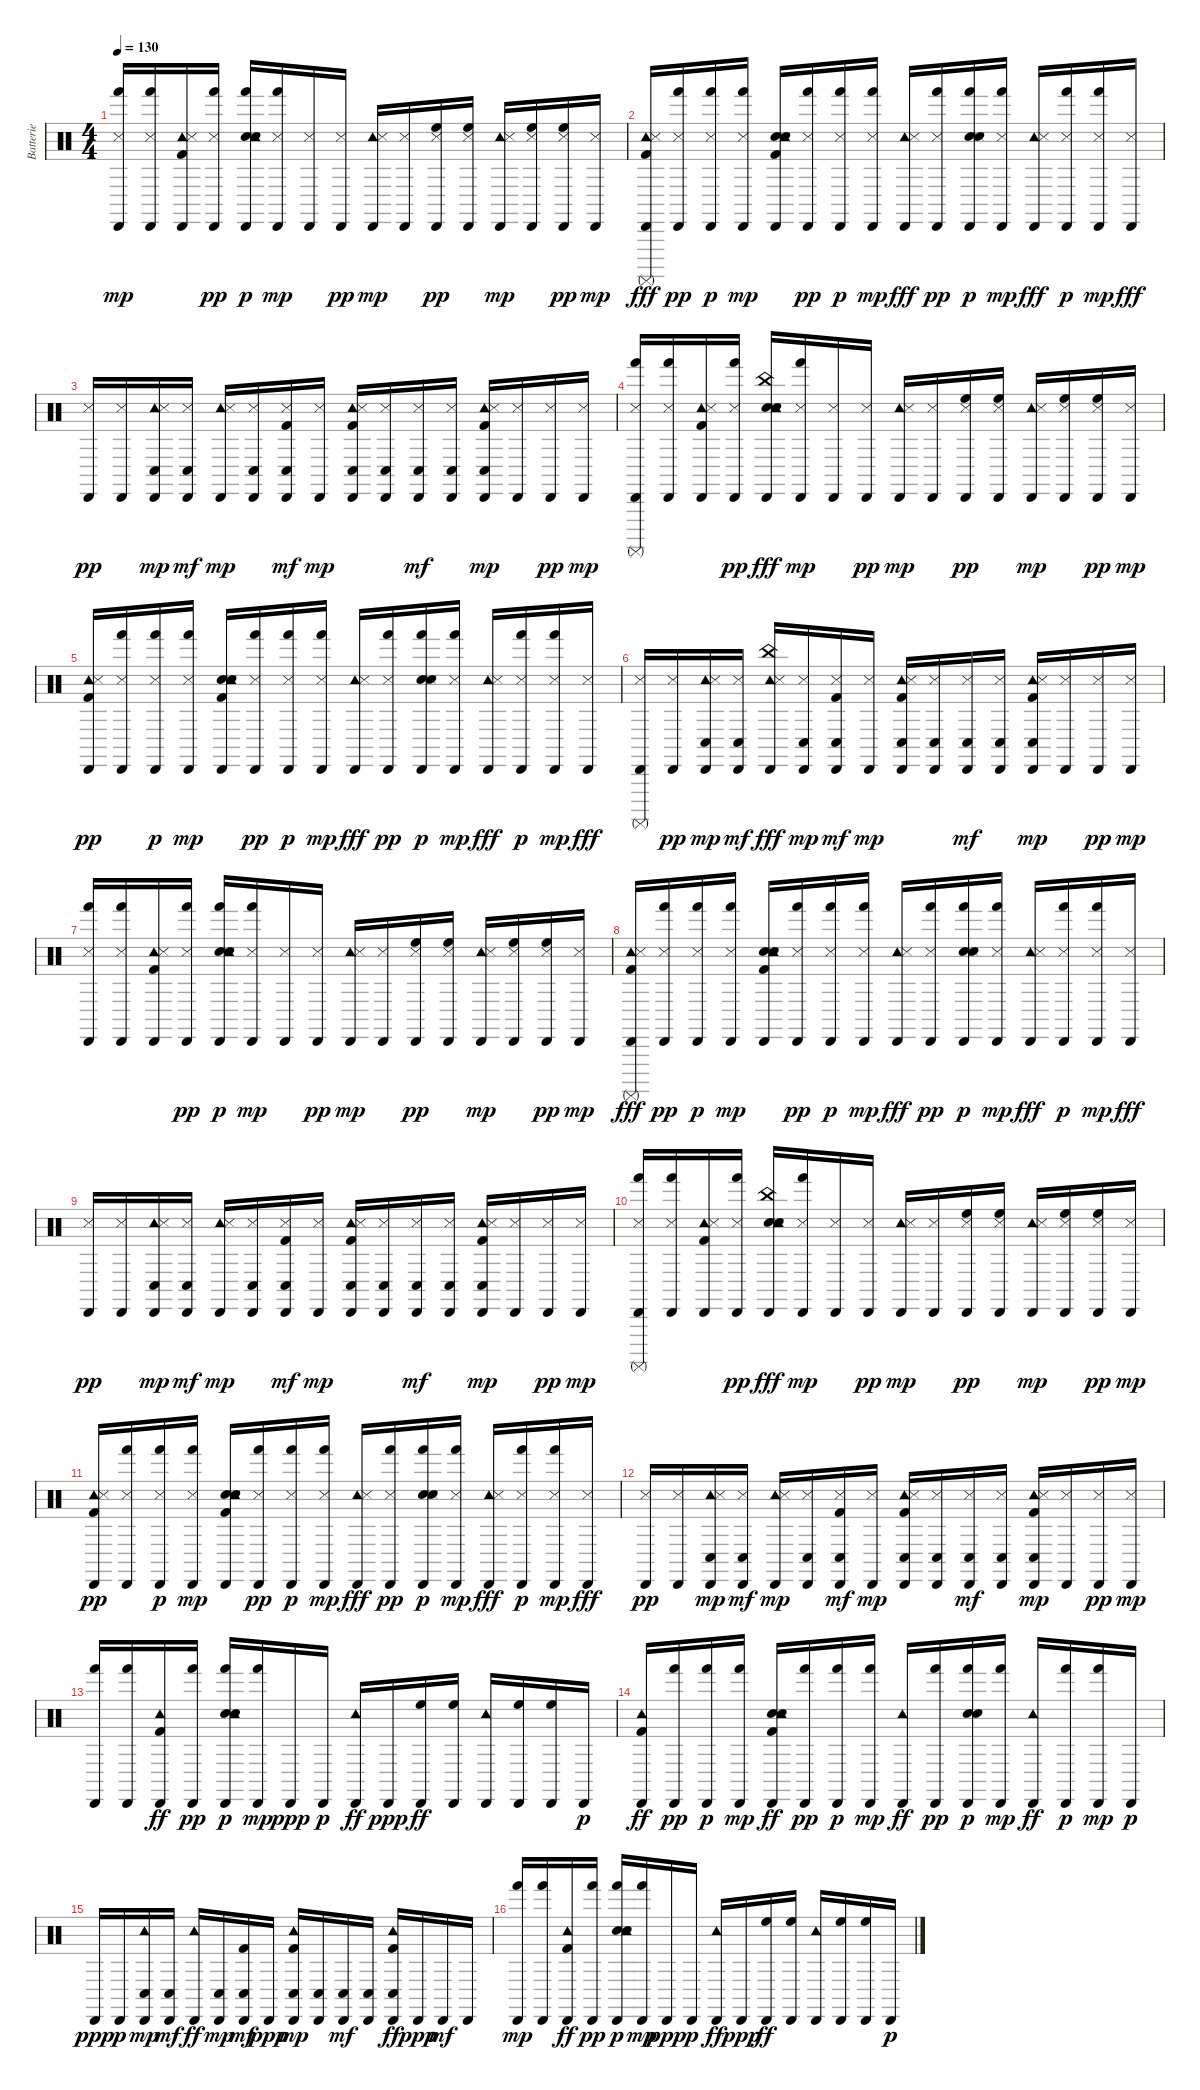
\track ("Batterie" "Batterie") {instrument percussion}
\staff {score}
\articulation defaults
\ts (4 4)
\tempo 130
\clef neutral
\ks c
("Cabasa (hit)" "Metronome (hit)" "Hand (hit)").16{dy mp} ("Cabasa (hit)" "Metronome (hit)" "Hand (hit)").16 ("Cabasa (hit)" "Tambourine (hit)" "Kick (hit) 2" "Metronome (hit)").16 ("Cabasa (hit)" "Metronome (hit)" "Hand (hit)").16{dy pp} ("Hand Clap (hit)" "Cabasa (hit)" "Tambourine (hit)" "Snare (hit) 2" "Metronome (hit)" "Hand (hit)").16{dy p} ("Cabasa (hit)" "Metronome (hit)" "Hand (hit)").16{dy mp} ("Cabasa (hit)" "Metronome (hit)").16 ("Cabasa (hit)" "Metronome (hit)").16{dy pp} ("Cabasa (hit)" "Tambourine (hit)" "Metronome (hit)").16{dy mp} ("Cabasa (hit)" "Metronome (hit)").16 ("Cabasa (hit)" "High Floor Tom (hit)" "Metronome (hit)").16{dy pp} ("Cabasa (hit)" "High Floor Tom (hit)" "Metronome (hit)").16 ("Cabasa (hit)" "Tambourine (hit)" "Metronome (hit)").16{dy mp} ("Cabasa (hit)" "High Floor Tom (hit)" "Metronome (hit)").16 ("Cabasa (hit)" "High Floor Tom (hit)" "Metronome (hit)").16{dy pp} ("Cabasa (hit)" "Metronome (hit)").16{dy mp} |
("Cabasa (hit)" "Tambourine (hit)" "Kick (hit) 2" "Metronome (hit)" "Surdo (mute)").16{dy fff} ("Cabasa (hit)" "Metronome (hit)" "Hand (hit)").16{dy pp} ("Cabasa (hit)" "Metronome (hit)" "Hand (hit)").16{dy p} ("Cabasa (hit)" "Metronome (hit)" "Hand (hit)").16{dy mp} ("Hand Clap (hit)" "Cabasa (hit)" "Tambourine (hit)" "Kick (hit) 2" "Snare (hit) 2" "Metronome (hit)").16 ("Cabasa (hit)" "Metronome (hit)" "Hand (hit)").16{dy pp} ("Cabasa (hit)" "Metronome (hit)" "Hand (hit)").16{dy p} ("Cabasa (hit)" "Metronome (hit)" "Hand (hit)").16{dy mp} ("Cabasa (hit)" "Tambourine (hit)" "Metronome (hit)").16{dy fff} ("Cabasa (hit)" "Metronome (hit)" "Hand (hit)").16{dy pp} ("Hand Clap (hit)" "Cabasa (hit)" "Snare (hit) 2" "Metronome (hit)" "Hand (hit)").16{dy p} ("Cabasa (hit)" "Metronome (hit)" "Hand (hit)").16{dy mp} ("Cabasa (hit)" "Tambourine (hit)" "Metronome (hit)").16{dy fff} ("Cabasa (hit)" "Metronome (hit)" "Hand (hit)").16{dy p} ("Cabasa (hit)" "Metronome (hit)" "Hand (hit)").16{dy mp} ("Cabasa (hit)" "Metronome (hit)").16{dy fff} |
("Cabasa (hit)" "Metronome (hit)").16{dy pp} ("Cabasa (hit)" "Metronome (hit)").16 ("Cabasa (hit)" "Tambourine (hit)" "Metronome (hit)" "Conga low (hit)").16{dy mp} ("Cabasa (hit)" "Metronome (hit)" "Conga low (hit)").16{dy mf} ("Cabasa (hit)" "Tambourine (hit)" "Metronome (hit)").16{dy mp} ("Cabasa (hit)" "Metronome (hit)" "Conga low (hit)").16 ("Cabasa (hit)" "Kick (hit) 2" "Metronome (hit)" "Conga low (hit)").16{dy mf} ("Cabasa (hit)" "Metronome (hit)").16{dy mp} ("Cabasa (hit)" "Tambourine (hit)" "Kick (hit) 2" "Metronome (hit)" "Conga low (hit)").16 ("Cabasa (hit)" "Metronome (hit)" "Conga low (hit)").16 ("Cabasa (hit)" "Metronome (hit)" "Conga low (hit)").16{dy mf} ("Cabasa (hit)" "Metronome (hit)" "Conga low (hit)").16 ("Cabasa (hit)" "Tambourine (hit)" "Kick (hit) 2" "Metronome (hit)" "Conga low (hit)").16{dy mp} ("Cabasa (hit)" "Metronome (hit)").16 ("Cabasa (hit)" "Metronome (hit)").16{dy pp} ("Cabasa (hit)" "Metronome (hit)").16{dy mp} |
("Cabasa (hit)" "Metronome (hit)" "Surdo (mute)" "Hand (hit)").16 ("Cabasa (hit)" "Metronome (hit)" "Hand (hit)").16 ("Cabasa (hit)" "Tambourine (hit)" "Kick (hit) 2" "Metronome (hit)").16 ("Cabasa (hit)" "Metronome (hit)" "Hand (hit)").16{dy pp} ("Hand Clap (hit)" "Cabasa (hit)" "Tambourine (hit)" "Snare (hit) 2" "Metronome (hit)" "China (hit)").16{dy fff} ("Cabasa (hit)" "Metronome (hit)" "Hand (hit)").16{dy mp} ("Cabasa (hit)" "Metronome (hit)").16 ("Cabasa (hit)" "Metronome (hit)").16{dy pp} ("Cabasa (hit)" "Tambourine (hit)" "Metronome (hit)").16{dy mp} ("Cabasa (hit)" "Metronome (hit)").16 ("Cabasa (hit)" "High Floor Tom (hit)" "Metronome (hit)").16{dy pp} ("Cabasa (hit)" "High Floor Tom (hit)" "Metronome (hit)").16 ("Cabasa (hit)" "Tambourine (hit)" "Metronome (hit)").16{dy mp} ("Cabasa (hit)" "High Floor Tom (hit)" "Metronome (hit)").16 ("Cabasa (hit)" "High Floor Tom (hit)" "Metronome (hit)").16{dy pp} ("Cabasa (hit)" "Metronome (hit)").16{dy mp} |
("Cabasa (hit)" "Tambourine (hit)" "Kick (hit) 2" "Metronome (hit)").16{dy pp} ("Cabasa (hit)" "Metronome (hit)" "Hand (hit)").16 ("Cabasa (hit)" "Metronome (hit)" "Hand (hit)").16{dy p} ("Cabasa (hit)" "Metronome (hit)" "Hand (hit)").16{dy mp} ("Hand Clap (hit)" "Cabasa (hit)" "Tambourine (hit)" "Kick (hit) 2" "Snare (hit) 2" "Metronome (hit)").16 ("Cabasa (hit)" "Metronome (hit)" "Hand (hit)").16{dy pp} ("Cabasa (hit)" "Metronome (hit)" "Hand (hit)").16{dy p} ("Cabasa (hit)" "Metronome (hit)" "Hand (hit)").16{dy mp} ("Cabasa (hit)" "Tambourine (hit)" "Metronome (hit)").16{dy fff} ("Cabasa (hit)" "Metronome (hit)" "Hand (hit)").16{dy pp} ("Hand Clap (hit)" "Cabasa (hit)" "Snare (hit) 2" "Metronome (hit)" "Hand (hit)").16{dy p} ("Cabasa (hit)" "Metronome (hit)" "Hand (hit)").16{dy mp} ("Cabasa (hit)" "Tambourine (hit)" "Metronome (hit)").16{dy fff} ("Cabasa (hit)" "Metronome (hit)" "Hand (hit)").16{dy p} ("Cabasa (hit)" "Metronome (hit)" "Hand (hit)").16{dy mp} ("Cabasa (hit)" "Metronome (hit)").16{dy fff} |
("Cabasa (hit)" "Metronome (hit)" "Surdo (mute)").16 ("Cabasa (hit)" "Metronome (hit)").16{dy pp} ("Cabasa (hit)" "Tambourine (hit)" "Metronome (hit)" "Conga low (hit)").16{dy mp} ("Cabasa (hit)" "Metronome (hit)" "Conga low (hit)").16{dy mf} ("Cabasa (hit)" "Tambourine (hit)" "Metronome (hit)" "China (hit)").16{dy fff} ("Cabasa (hit)" "Metronome (hit)" "Conga low (hit)").16{dy mp} ("Cabasa (hit)" "Kick (hit) 2" "Metronome (hit)" "Conga low (hit)").16{dy mf} ("Cabasa (hit)" "Metronome (hit)").16{dy mp} ("Cabasa (hit)" "Tambourine (hit)" "Kick (hit) 2" "Metronome (hit)" "Conga low (hit)").16 ("Cabasa (hit)" "Metronome (hit)" "Conga low (hit)").16 ("Cabasa (hit)" "Metronome (hit)" "Conga low (hit)").16{dy mf} ("Cabasa (hit)" "Metronome (hit)" "Conga low (hit)").16 ("Cabasa (hit)" "Tambourine (hit)" "Kick (hit) 2" "Metronome (hit)" "Conga low (hit)").16{dy mp} ("Cabasa (hit)" "Metronome (hit)").16 ("Cabasa (hit)" "Metronome (hit)").16{dy pp} ("Cabasa (hit)" "Metronome (hit)").16{dy mp} |
("Cabasa (hit)" "Metronome (hit)" "Hand (hit)").16 ("Cabasa (hit)" "Metronome (hit)" "Hand (hit)").16 ("Cabasa (hit)" "Tambourine (hit)" "Kick (hit) 2" "Metronome (hit)").16 ("Cabasa (hit)" "Metronome (hit)" "Hand (hit)").16{dy pp} ("Hand Clap (hit)" "Cabasa (hit)" "Tambourine (hit)" "Snare (hit) 2" "Metronome (hit)" "Hand (hit)").16{dy p} ("Cabasa (hit)" "Metronome (hit)" "Hand (hit)").16{dy mp} ("Cabasa (hit)" "Metronome (hit)").16 ("Cabasa (hit)" "Metronome (hit)").16{dy pp} ("Cabasa (hit)" "Tambourine (hit)" "Metronome (hit)").16{dy mp} ("Cabasa (hit)" "Metronome (hit)").16 ("Cabasa (hit)" "High Floor Tom (hit)" "Metronome (hit)").16{dy pp} ("Cabasa (hit)" "High Floor Tom (hit)" "Metronome (hit)").16 ("Cabasa (hit)" "Tambourine (hit)" "Metronome (hit)").16{dy mp} ("Cabasa (hit)" "High Floor Tom (hit)" "Metronome (hit)").16 ("Cabasa (hit)" "High Floor Tom (hit)" "Metronome (hit)").16{dy pp} ("Cabasa (hit)" "Metronome (hit)").16{dy mp} |
("Cabasa (hit)" "Tambourine (hit)" "Kick (hit) 2" "Metronome (hit)" "Surdo (mute)").16{dy fff} ("Cabasa (hit)" "Metronome (hit)" "Hand (hit)").16{dy pp} ("Cabasa (hit)" "Metronome (hit)" "Hand (hit)").16{dy p} ("Cabasa (hit)" "Metronome (hit)" "Hand (hit)").16{dy mp} ("Hand Clap (hit)" "Cabasa (hit)" "Tambourine (hit)" "Kick (hit) 2" "Snare (hit) 2" "Metronome (hit)").16 ("Cabasa (hit)" "Metronome (hit)" "Hand (hit)").16{dy pp} ("Cabasa (hit)" "Metronome (hit)" "Hand (hit)").16{dy p} ("Cabasa (hit)" "Metronome (hit)" "Hand (hit)").16{dy mp} ("Cabasa (hit)" "Tambourine (hit)" "Metronome (hit)").16{dy fff} ("Cabasa (hit)" "Metronome (hit)" "Hand (hit)").16{dy pp} ("Hand Clap (hit)" "Cabasa (hit)" "Snare (hit) 2" "Metronome (hit)" "Hand (hit)").16{dy p} ("Cabasa (hit)" "Metronome (hit)" "Hand (hit)").16{dy mp} ("Cabasa (hit)" "Tambourine (hit)" "Metronome (hit)").16{dy fff} ("Cabasa (hit)" "Metronome (hit)" "Hand (hit)").16{dy p} ("Cabasa (hit)" "Metronome (hit)" "Hand (hit)").16{dy mp} ("Cabasa (hit)" "Metronome (hit)").16{dy fff} |
("Cabasa (hit)" "Metronome (hit)").16{dy pp} ("Cabasa (hit)" "Metronome (hit)").16 ("Cabasa (hit)" "Tambourine (hit)" "Metronome (hit)" "Conga low (hit)").16{dy mp} ("Cabasa (hit)" "Metronome (hit)" "Conga low (hit)").16{dy mf} ("Cabasa (hit)" "Tambourine (hit)" "Metronome (hit)").16{dy mp} ("Cabasa (hit)" "Metronome (hit)" "Conga low (hit)").16 ("Cabasa (hit)" "Kick (hit) 2" "Metronome (hit)" "Conga low (hit)").16{dy mf} ("Cabasa (hit)" "Metronome (hit)").16{dy mp} ("Cabasa (hit)" "Tambourine (hit)" "Kick (hit) 2" "Metronome (hit)" "Conga low (hit)").16 ("Cabasa (hit)" "Metronome (hit)" "Conga low (hit)").16 ("Cabasa (hit)" "Metronome (hit)" "Conga low (hit)").16{dy mf} ("Cabasa (hit)" "Metronome (hit)" "Conga low (hit)").16 ("Cabasa (hit)" "Tambourine (hit)" "Kick (hit) 2" "Metronome (hit)" "Conga low (hit)").16{dy mp} ("Cabasa (hit)" "Metronome (hit)").16 ("Cabasa (hit)" "Metronome (hit)").16{dy pp} ("Cabasa (hit)" "Metronome (hit)").16{dy mp} |
("Cabasa (hit)" "Metronome (hit)" "Surdo (mute)" "Hand (hit)").16 ("Cabasa (hit)" "Metronome (hit)" "Hand (hit)").16 ("Cabasa (hit)" "Tambourine (hit)" "Kick (hit) 2" "Metronome (hit)").16 ("Cabasa (hit)" "Metronome (hit)" "Hand (hit)").16{dy pp} ("Hand Clap (hit)" "Cabasa (hit)" "Tambourine (hit)" "Snare (hit) 2" "Metronome (hit)" "China (hit)").16{dy fff} ("Cabasa (hit)" "Metronome (hit)" "Hand (hit)").16{dy mp} ("Cabasa (hit)" "Metronome (hit)").16 ("Cabasa (hit)" "Metronome (hit)").16{dy pp} ("Cabasa (hit)" "Tambourine (hit)" "Metronome (hit)").16{dy mp} ("Cabasa (hit)" "Metronome (hit)").16 ("Cabasa (hit)" "High Floor Tom (hit)" "Metronome (hit)").16{dy pp} ("Cabasa (hit)" "High Floor Tom (hit)" "Metronome (hit)").16 ("Cabasa (hit)" "Tambourine (hit)" "Metronome (hit)").16{dy mp} ("Cabasa (hit)" "High Floor Tom (hit)" "Metronome (hit)").16 ("Cabasa (hit)" "High Floor Tom (hit)" "Metronome (hit)").16{dy pp} ("Cabasa (hit)" "Metronome (hit)").16{dy mp} |
("Cabasa (hit)" "Tambourine (hit)" "Kick (hit) 2" "Metronome (hit)").16{dy pp} ("Cabasa (hit)" "Metronome (hit)" "Hand (hit)").16 ("Cabasa (hit)" "Metronome (hit)" "Hand (hit)").16{dy p} ("Cabasa (hit)" "Metronome (hit)" "Hand (hit)").16{dy mp} ("Hand Clap (hit)" "Cabasa (hit)" "Tambourine (hit)" "Kick (hit) 2" "Snare (hit) 2" "Metronome (hit)").16 ("Cabasa (hit)" "Metronome (hit)" "Hand (hit)").16{dy pp} ("Cabasa (hit)" "Metronome (hit)" "Hand (hit)").16{dy p} ("Cabasa (hit)" "Metronome (hit)" "Hand (hit)").16{dy mp} ("Cabasa (hit)" "Tambourine (hit)" "Metronome (hit)").16{dy fff} ("Cabasa (hit)" "Metronome (hit)" "Hand (hit)").16{dy pp} ("Hand Clap (hit)" "Cabasa (hit)" "Snare (hit) 2" "Metronome (hit)" "Hand (hit)").16{dy p} ("Cabasa (hit)" "Metronome (hit)" "Hand (hit)").16{dy mp} ("Cabasa (hit)" "Tambourine (hit)" "Metronome (hit)").16{dy fff} ("Cabasa (hit)" "Metronome (hit)" "Hand (hit)").16{dy p} ("Cabasa (hit)" "Metronome (hit)" "Hand (hit)").16{dy mp} ("Cabasa (hit)" "Metronome (hit)").16{dy fff} |
("Cabasa (hit)" "Metronome (hit)").16{dy pp} ("Cabasa (hit)" "Metronome (hit)").16 ("Cabasa (hit)" "Tambourine (hit)" "Metronome (hit)" "Conga low (hit)").16{dy mp} ("Cabasa (hit)" "Metronome (hit)" "Conga low (hit)").16{dy mf} ("Cabasa (hit)" "Tambourine (hit)" "Metronome (hit)").16{dy mp} ("Cabasa (hit)" "Metronome (hit)" "Conga low (hit)").16 ("Cabasa (hit)" "Kick (hit) 2" "Metronome (hit)" "Conga low (hit)").16{dy mf} ("Cabasa (hit)" "Metronome (hit)").16{dy mp} ("Cabasa (hit)" "Tambourine (hit)" "Kick (hit) 2" "Metronome (hit)" "Conga low (hit)").16 ("Cabasa (hit)" "Metronome (hit)" "Conga low (hit)").16 ("Cabasa (hit)" "Metronome (hit)" "Conga low (hit)").16{dy mf} ("Cabasa (hit)" "Metronome (hit)" "Conga low (hit)").16 ("Cabasa (hit)" "Tambourine (hit)" "Kick (hit) 2" "Metronome (hit)" "Conga low (hit)").16{dy mp} ("Cabasa (hit)" "Metronome (hit)").16 ("Cabasa (hit)" "Metronome (hit)").16{dy pp} ("Cabasa (hit)" "Metronome (hit)").16{dy mp} |
("Cabasa (hit)" "Hand (hit)").16 ("Cabasa (hit)" "Hand (hit)").16 ("Cabasa (hit)" "Tambourine (hit)" "Kick (hit) 2").16{dy ff} ("Cabasa (hit)" "Hand (hit)").16{dy pp} ("Hand Clap (hit)" "Cabasa (hit)" "Tambourine (hit)" "Snare (hit) 2" "Hand (hit)").16{dy p} ("Cabasa (hit)" "Hand (hit)").16{dy mp} "Cabasa (hit)".16{dy ppp} "Cabasa (hit)".16{dy p} ("Cabasa (hit)" "Tambourine (hit)").16{dy ff} "Cabasa (hit)".16{dy ppp} ("Cabasa (hit)" "High Floor Tom (hit)").16{dy ff} ("Cabasa (hit)" "High Floor Tom (hit)").16 ("Cabasa (hit)" "Tambourine (hit)").16 ("Cabasa (hit)" "High Floor Tom (hit)").16 ("Cabasa (hit)" "High Floor Tom (hit)").16 "Cabasa (hit)".16{dy p} |
("Cabasa (hit)" "Tambourine (hit)" "Kick (hit) 2").16{dy ff} ("Cabasa (hit)" "Hand (hit)").16{dy pp} ("Cabasa (hit)" "Hand (hit)").16{dy p} ("Cabasa (hit)" "Hand (hit)").16{dy mp} ("Hand Clap (hit)" "Cabasa (hit)" "Tambourine (hit)" "Kick (hit) 2" "Snare (hit) 2").16{dy ff} ("Cabasa (hit)" "Hand (hit)").16{dy pp} ("Cabasa (hit)" "Hand (hit)").16{dy p} ("Cabasa (hit)" "Hand (hit)").16{dy mp} ("Cabasa (hit)" "Tambourine (hit)").16{dy ff} ("Cabasa (hit)" "Hand (hit)").16{dy pp} ("Hand Clap (hit)" "Cabasa (hit)" "Snare (hit) 2" "Hand (hit)").16{dy p} ("Cabasa (hit)" "Hand (hit)").16{dy mp} ("Cabasa (hit)" "Tambourine (hit)").16{dy ff} ("Cabasa (hit)" "Hand (hit)").16{dy p} ("Cabasa (hit)" "Hand (hit)").16{dy mp} "Cabasa (hit)".16{dy p} |
"Cabasa (hit)".16{dy ppp} "Cabasa (hit)".16{dy p} ("Cabasa (hit)" "Tambourine (hit)" "Conga low (hit)").16{dy mp} ("Cabasa (hit)" "Conga low (hit)").16{dy mf} ("Cabasa (hit)" "Tambourine (hit)").16{dy ff} ("Cabasa (hit)" "Conga low (hit)").16{dy mp} ("Cabasa (hit)" "Kick (hit) 2" "Conga low (hit)").16{dy mf} "Cabasa (hit)".16{dy ppp} ("Cabasa (hit)" "Tambourine (hit)" "Kick (hit) 2" "Conga low (hit)").16{dy mp} ("Cabasa (hit)" "Conga low (hit)").16 ("Cabasa (hit)" "Conga low (hit)").16{dy mf} ("Cabasa (hit)" "Conga low (hit)").16 ("Cabasa (hit)" "Tambourine (hit)" "Kick (hit) 2" "Conga low (hit)").16{dy ff} "Cabasa (hit)".16{dy ppp} "Cabasa (hit)".16{dy mf} "Cabasa (hit)".16 |
("Cabasa (hit)" "Hand (hit)").16{dy mp} ("Cabasa (hit)" "Hand (hit)").16 ("Cabasa (hit)" "Tambourine (hit)" "Kick (hit) 2").16{dy ff} ("Cabasa (hit)" "Hand (hit)").16{dy pp} ("Hand Clap (hit)" "Cabasa (hit)" "Tambourine (hit)" "Snare (hit) 2" "Hand (hit)").16{dy p} ("Cabasa (hit)" "Hand (hit)").16{dy mp} "Cabasa (hit)".16{dy ppp} "Cabasa (hit)".16{dy p} ("Cabasa (hit)" "Tambourine (hit)").16{dy ff} "Cabasa (hit)".16{dy ppp} ("Cabasa (hit)" "High Floor Tom (hit)").16{dy ff} ("Cabasa (hit)" "High Floor Tom (hit)").16 ("Cabasa (hit)" "Tambourine (hit)").16 ("Cabasa (hit)" "High Floor Tom (hit)").16 ("Cabasa (hit)" "High Floor Tom (hit)").16 "Cabasa (hit)".16{dy p}
